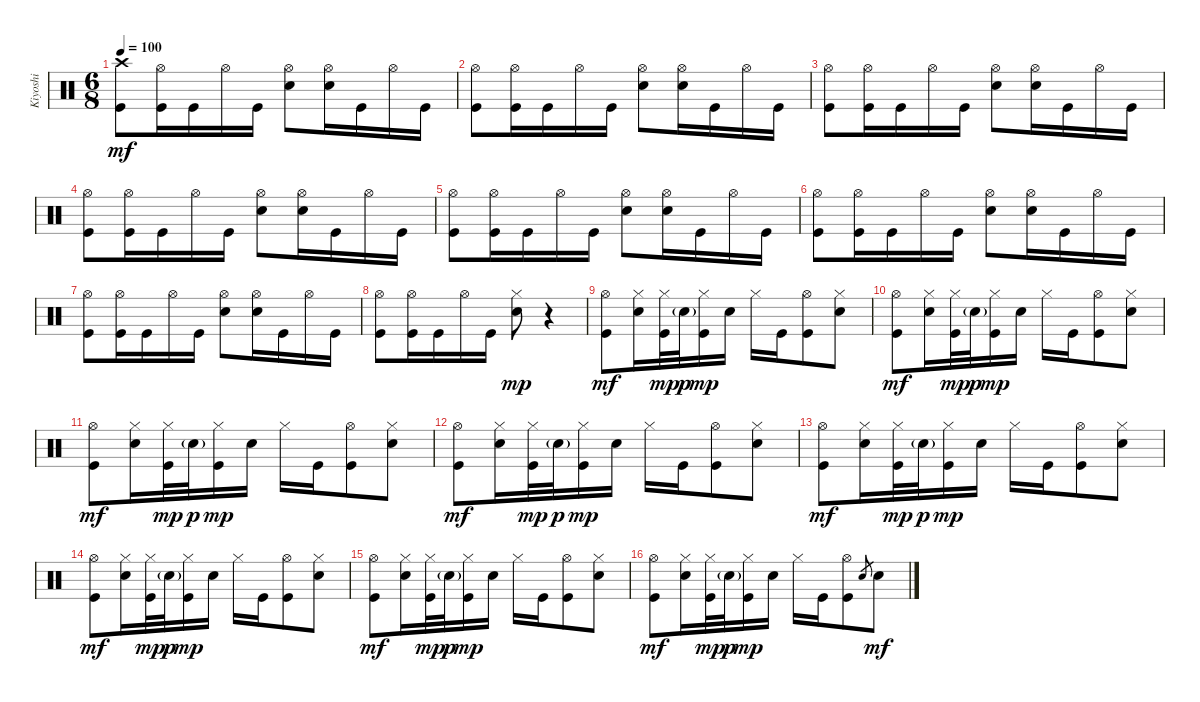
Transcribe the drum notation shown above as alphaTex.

\track ("Kiyoshi" "Kiyoshi") {instrument percussion}
\staff {score}
\articulation defaults
\ts (6 8)
\tempo 100
\clef neutral
\ks c
("Kick (hit)" "Crash high (hit)").8{dy mf} ("Kick (hit)" "Hi-Hat (open)").16 "Kick (hit)".16 "Hi-Hat (open)".16 "Kick (hit)".16 ("Electric Snare (hit)" "Hi-Hat (open)").8 ("Electric Snare (hit)" "Hi-Hat (open)").16 "Kick (hit)".16 "Hi-Hat (open)".16 "Kick (hit)".16 |
("Kick (hit)" "Hi-Hat (open)").8 ("Kick (hit)" "Hi-Hat (open)").16 "Kick (hit)".16 "Hi-Hat (open)".16 "Kick (hit)".16 ("Electric Snare (hit)" "Hi-Hat (open)").8 ("Electric Snare (hit)" "Hi-Hat (open)").16 "Kick (hit)".16 "Hi-Hat (open)".16 "Kick (hit)".16 |
("Kick (hit)" "Hi-Hat (open)").8 ("Kick (hit)" "Hi-Hat (open)").16 "Kick (hit)".16 "Hi-Hat (open)".16 "Kick (hit)".16 ("Electric Snare (hit)" "Hi-Hat (open)").8 ("Electric Snare (hit)" "Hi-Hat (open)").16 "Kick (hit)".16 "Hi-Hat (open)".16 "Kick (hit)".16 |
("Kick (hit)" "Hi-Hat (open)").8 ("Kick (hit)" "Hi-Hat (open)").16 "Kick (hit)".16 "Hi-Hat (open)".16 "Kick (hit)".16 ("Electric Snare (hit)" "Hi-Hat (open)").8 ("Electric Snare (hit)" "Hi-Hat (open)").16 "Kick (hit)".16 "Hi-Hat (open)".16 "Kick (hit)".16 |
("Kick (hit)" "Hi-Hat (open)").8 ("Kick (hit)" "Hi-Hat (open)").16 "Kick (hit)".16 "Hi-Hat (open)".16 "Kick (hit)".16 ("Electric Snare (hit)" "Hi-Hat (open)").8 ("Electric Snare (hit)" "Hi-Hat (open)").16 "Kick (hit)".16 "Hi-Hat (open)".16 "Kick (hit)".16 |
("Kick (hit)" "Hi-Hat (open)").8 ("Kick (hit)" "Hi-Hat (open)").16 "Kick (hit)".16 "Hi-Hat (open)".16 "Kick (hit)".16 ("Electric Snare (hit)" "Hi-Hat (open)").8 ("Electric Snare (hit)" "Hi-Hat (open)").16 "Kick (hit)".16 "Hi-Hat (open)".16 "Kick (hit)".16 |
("Kick (hit)" "Hi-Hat (open)").8 ("Kick (hit)" "Hi-Hat (open)").16 "Kick (hit)".16 "Hi-Hat (open)".16 "Kick (hit)".16 ("Electric Snare (hit)" "Hi-Hat (open)").8 ("Electric Snare (hit)" "Hi-Hat (open)").16 "Kick (hit)".16 "Hi-Hat (open)".16 "Kick (hit)".16 |
("Kick (hit)" "Hi-Hat (open)").8 ("Kick (hit)" "Hi-Hat (open)").16 "Kick (hit)".16 "Hi-Hat (open)".16 "Kick (hit)".16 ("Electric Snare (hit)" "Hi-Hat (closed)").8{dy mp} r.4 |
("Kick (hit)" "Hi-Hat (open)").8{dy mf} ("Electric Snare (hit)" "Hi-Hat (closed)").16 ("Hi-Hat (closed)" "Kick (hit)").32{dy mp} "Electric Snare (hit)"{g}.32{dy p} ("Hi-Hat (closed)" "Kick (hit)").16{dy mp} "Electric Snare (hit)".16 "Hi-Hat (closed)".16 "Kick (hit)".16 ("Kick (hit)" "Hi-Hat (open)").8 ("Hi-Hat (closed)" "Electric Snare (hit)").8 |
("Kick (hit)" "Hi-Hat (open)").8{dy mf} ("Electric Snare (hit)" "Hi-Hat (closed)").16 ("Hi-Hat (closed)" "Kick (hit)").32{dy mp} "Electric Snare (hit)"{g}.32{dy p} ("Hi-Hat (closed)" "Kick (hit)").16{dy mp} "Electric Snare (hit)".16 "Hi-Hat (closed)".16 "Kick (hit)".16 ("Kick (hit)" "Hi-Hat (open)").8 ("Hi-Hat (closed)" "Electric Snare (hit)").8 |
("Kick (hit)" "Hi-Hat (open)").8{dy mf} ("Electric Snare (hit)" "Hi-Hat (closed)").16 ("Hi-Hat (closed)" "Kick (hit)").32{dy mp} "Electric Snare (hit)"{g}.32{dy p} ("Hi-Hat (closed)" "Kick (hit)").16{dy mp} "Electric Snare (hit)".16 "Hi-Hat (closed)".16 "Kick (hit)".16 ("Kick (hit)" "Hi-Hat (open)").8 ("Hi-Hat (closed)" "Electric Snare (hit)").8 |
("Kick (hit)" "Hi-Hat (open)").8{dy mf} ("Electric Snare (hit)" "Hi-Hat (closed)").16 ("Hi-Hat (closed)" "Kick (hit)").32{dy mp} "Electric Snare (hit)"{g}.32{dy p} ("Hi-Hat (closed)" "Kick (hit)").16{dy mp} "Electric Snare (hit)".16 "Hi-Hat (closed)".16 "Kick (hit)".16 ("Kick (hit)" "Hi-Hat (open)").8 ("Hi-Hat (closed)" "Electric Snare (hit)").8 |
("Kick (hit)" "Hi-Hat (open)").8{dy mf} ("Electric Snare (hit)" "Hi-Hat (closed)").16 ("Hi-Hat (closed)" "Kick (hit)").32{dy mp} "Electric Snare (hit)"{g}.32{dy p} ("Hi-Hat (closed)" "Kick (hit)").16{dy mp} "Electric Snare (hit)".16 "Hi-Hat (closed)".16 "Kick (hit)".16 ("Kick (hit)" "Hi-Hat (open)").8 ("Hi-Hat (closed)" "Electric Snare (hit)").8 |
("Kick (hit)" "Hi-Hat (open)").8{dy mf} ("Electric Snare (hit)" "Hi-Hat (closed)").16 ("Hi-Hat (closed)" "Kick (hit)").32{dy mp} "Electric Snare (hit)"{g}.32{dy p} ("Hi-Hat (closed)" "Kick (hit)").16{dy mp} "Electric Snare (hit)".16 "Hi-Hat (closed)".16 "Kick (hit)".16 ("Kick (hit)" "Hi-Hat (open)").8 ("Hi-Hat (closed)" "Electric Snare (hit)").8 |
("Kick (hit)" "Hi-Hat (open)").8{dy mf} ("Electric Snare (hit)" "Hi-Hat (closed)").16 ("Hi-Hat (closed)" "Kick (hit)").32{dy mp} "Electric Snare (hit)"{g}.32{dy p} ("Hi-Hat (closed)" "Kick (hit)").16{dy mp} "Electric Snare (hit)".16 "Hi-Hat (closed)".16 "Kick (hit)".16 ("Kick (hit)" "Hi-Hat (open)").8 ("Hi-Hat (closed)" "Electric Snare (hit)").8 |
("Kick (hit)" "Hi-Hat (open)").8{dy mf} ("Electric Snare (hit)" "Hi-Hat (closed)").16 ("Hi-Hat (closed)" "Kick (hit)").32{dy mp} "Electric Snare (hit)"{g}.32{dy p} ("Hi-Hat (closed)" "Kick (hit)").16{dy mp} "Electric Snare (hit)".16 "Hi-Hat (closed)".16 "Kick (hit)".16 ("Kick (hit)" "Hi-Hat (open)").8 "Electric Snare (hit)".8{gr} "Electric Snare (hit)".8{dy mf}
